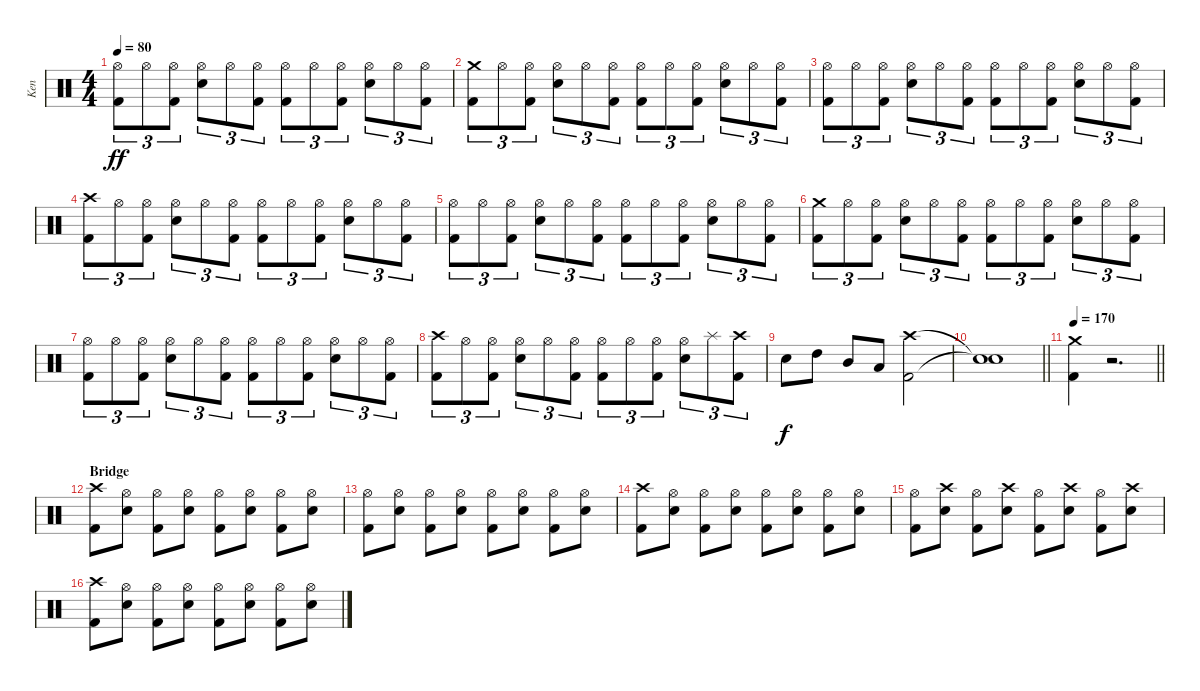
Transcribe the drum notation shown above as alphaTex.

\track ("Ken" "Ken") {instrument percussion}
\staff {score}
\articulation defaults
\ts (4 4)
\tempo 80
\clef neutral
\ks c
("Hi-Hat (open)" "Kick (hit) 2").8{tu (3 2) dy ff} "Hi-Hat (open)".8{tu (3 2)} ("Hi-Hat (open)" "Kick (hit) 2").8{tu (3 2)} ("Hi-Hat (open)" "Snare (hit) 2").8{tu (3 2)} "Hi-Hat (open)".8{tu (3 2)} ("Hi-Hat (open)" "Kick (hit) 2").8{tu (3 2)} ("Hi-Hat (open)" "Kick (hit) 2").8{tu (3 2)} "Hi-Hat (open)".8{tu (3 2)} ("Hi-Hat (open)" "Kick (hit) 2").8{tu (3 2)} ("Hi-Hat (open)" "Snare (hit) 2").8{tu (3 2)} "Hi-Hat (open)".8{tu (3 2)} ("Hi-Hat (open)" "Kick (hit) 2").8{tu (3 2)} |
("Crash medium (hit)" "Kick (hit) 2").8{tu (3 2)} "Hi-Hat (open)".8{tu (3 2)} ("Hi-Hat (open)" "Kick (hit) 2").8{tu (3 2)} ("Hi-Hat (open)" "Snare (hit) 2").8{tu (3 2)} "Hi-Hat (open)".8{tu (3 2)} ("Hi-Hat (open)" "Kick (hit) 2").8{tu (3 2)} ("Hi-Hat (open)" "Kick (hit) 2").8{tu (3 2)} "Hi-Hat (open)".8{tu (3 2)} ("Hi-Hat (open)" "Kick (hit) 2").8{tu (3 2)} ("Hi-Hat (open)" "Snare (hit) 2").8{tu (3 2)} "Hi-Hat (open)".8{tu (3 2)} ("Hi-Hat (open)" "Kick (hit) 2").8{tu (3 2)} |
("Hi-Hat (open)" "Kick (hit) 2").8{tu (3 2)} "Hi-Hat (open)".8{tu (3 2)} ("Hi-Hat (open)" "Kick (hit) 2").8{tu (3 2)} ("Hi-Hat (open)" "Snare (hit) 2").8{tu (3 2)} "Hi-Hat (open)".8{tu (3 2)} ("Hi-Hat (open)" "Kick (hit) 2").8{tu (3 2)} ("Hi-Hat (open)" "Kick (hit) 2").8{tu (3 2)} "Hi-Hat (open)".8{tu (3 2)} ("Hi-Hat (open)" "Kick (hit) 2").8{tu (3 2)} ("Hi-Hat (open)" "Snare (hit) 2").8{tu (3 2)} "Hi-Hat (open)".8{tu (3 2)} ("Hi-Hat (open)" "Kick (hit) 2").8{tu (3 2)} |
("Crash high (hit)" "Kick (hit) 2").8{tu (3 2)} "Hi-Hat (open)".8{tu (3 2)} ("Hi-Hat (open)" "Kick (hit) 2").8{tu (3 2)} ("Hi-Hat (open)" "Snare (hit) 2").8{tu (3 2)} "Hi-Hat (open)".8{tu (3 2)} ("Hi-Hat (open)" "Kick (hit) 2").8{tu (3 2)} ("Hi-Hat (open)" "Kick (hit) 2").8{tu (3 2)} "Hi-Hat (open)".8{tu (3 2)} ("Hi-Hat (open)" "Kick (hit) 2").8{tu (3 2)} ("Hi-Hat (open)" "Snare (hit) 2").8{tu (3 2)} "Hi-Hat (open)".8{tu (3 2)} ("Hi-Hat (open)" "Kick (hit) 2").8{tu (3 2)} |
("Hi-Hat (open)" "Kick (hit) 2").8{tu (3 2)} "Hi-Hat (open)".8{tu (3 2)} ("Hi-Hat (open)" "Kick (hit) 2").8{tu (3 2)} ("Hi-Hat (open)" "Snare (hit) 2").8{tu (3 2)} "Hi-Hat (open)".8{tu (3 2)} ("Hi-Hat (open)" "Kick (hit) 2").8{tu (3 2)} ("Hi-Hat (open)" "Kick (hit) 2").8{tu (3 2)} "Hi-Hat (open)".8{tu (3 2)} ("Hi-Hat (open)" "Kick (hit) 2").8{tu (3 2)} ("Hi-Hat (open)" "Snare (hit) 2").8{tu (3 2)} "Hi-Hat (open)".8{tu (3 2)} ("Hi-Hat (open)" "Kick (hit) 2").8{tu (3 2)} |
("Crash medium (hit)" "Kick (hit) 2").8{tu (3 2)} "Hi-Hat (open)".8{tu (3 2)} ("Hi-Hat (open)" "Kick (hit) 2").8{tu (3 2)} ("Hi-Hat (open)" "Snare (hit) 2").8{tu (3 2)} "Hi-Hat (open)".8{tu (3 2)} ("Hi-Hat (open)" "Kick (hit) 2").8{tu (3 2)} ("Hi-Hat (open)" "Kick (hit) 2").8{tu (3 2)} "Hi-Hat (open)".8{tu (3 2)} ("Hi-Hat (open)" "Kick (hit) 2").8{tu (3 2)} ("Hi-Hat (open)" "Snare (hit) 2").8{tu (3 2)} "Hi-Hat (open)".8{tu (3 2)} ("Hi-Hat (open)" "Kick (hit) 2").8{tu (3 2)} |
("Hi-Hat (open)" "Kick (hit) 2").8{tu (3 2)} "Hi-Hat (open)".8{tu (3 2)} ("Hi-Hat (open)" "Kick (hit) 2").8{tu (3 2)} ("Hi-Hat (open)" "Snare (hit) 2").8{tu (3 2)} "Hi-Hat (open)".8{tu (3 2)} ("Hi-Hat (open)" "Kick (hit) 2").8{tu (3 2)} ("Hi-Hat (open)" "Kick (hit) 2").8{tu (3 2)} "Hi-Hat (open)".8{tu (3 2)} ("Hi-Hat (open)" "Kick (hit) 2").8{tu (3 2)} ("Hi-Hat (open)" "Snare (hit) 2").8{tu (3 2)} "Hi-Hat (open)".8{tu (3 2)} ("Hi-Hat (open)" "Kick (hit) 2").8{tu (3 2)} |
("Crash high (hit)" "Kick (hit) 2").8{tu (3 2)} "Hi-Hat (open)".8{tu (3 2)} ("Hi-Hat (open)" "Kick (hit) 2").8{tu (3 2)} ("Hi-Hat (open)" "Snare (hit) 2").8{tu (3 2)} "Hi-Hat (open)".8{tu (3 2)} ("Hi-Hat (open)" "Kick (hit) 2").8{tu (3 2)} ("Hi-Hat (open)" "Kick (hit) 2").8{tu (3 2)} "Hi-Hat (open)".8{tu (3 2)} ("Hi-Hat (open)" "Kick (hit) 2").8{tu (3 2)} ("Hi-Hat (open)" "Snare (hit) 2").8{tu (3 2)} "Splash (hit)".8{tu (3 2)} ("Crash high (hit)" "Kick (hit) 2").8{tu (3 2)} |
"Snare (hit) 2".8{dy f} "High Tom (hit)".8 "Mid Tom (hit)".8 "Low Tom (hit)".8 ("Crash high (hit)" "Kick (hit) 2").2 |
\barLineRight lightlight
("Snare (hit)"{t} "Snare (hit)"{t}).1 |
\tempo 170
\barLineRight lightlight
("Kick (hit) 2" "Crash medium (hit)").4 r.2{d} |
\section ("" "Bridge")
("Crash high (hit)" "Kick (hit) 2").8 ("Hi-Hat (open)" "Snare (hit) 2").8 ("Hi-Hat (open)" "Kick (hit) 2").8 ("Hi-Hat (open)" "Snare (hit) 2").8 ("Hi-Hat (open)" "Kick (hit) 2").8 ("Hi-Hat (open)" "Snare (hit) 2").8 ("Hi-Hat (open)" "Kick (hit) 2").8 ("Hi-Hat (open)" "Snare (hit) 2").8 |
("Hi-Hat (open)" "Kick (hit) 2").8 ("Hi-Hat (open)" "Snare (hit) 2").8 ("Hi-Hat (open)" "Kick (hit) 2").8 ("Hi-Hat (open)" "Snare (hit) 2").8 ("Hi-Hat (open)" "Kick (hit) 2").8 ("Hi-Hat (open)" "Snare (hit) 2").8 ("Hi-Hat (open)" "Kick (hit) 2").8 ("Hi-Hat (open)" "Snare (hit) 2").8 |
("Crash high (hit)" "Kick (hit) 2").8 ("Hi-Hat (open)" "Snare (hit) 2").8 ("Hi-Hat (open)" "Kick (hit) 2").8 ("Hi-Hat (open)" "Snare (hit) 2").8 ("Hi-Hat (open)" "Kick (hit) 2").8 ("Hi-Hat (open)" "Snare (hit) 2").8 ("Hi-Hat (open)" "Kick (hit) 2").8 ("Hi-Hat (open)" "Snare (hit) 2").8 |
("Hi-Hat (open)" "Kick (hit) 2").8 ("Crash high (hit)" "Snare (hit) 2").8 ("Hi-Hat (open)" "Kick (hit) 2").8 ("Crash high (hit)" "Snare (hit) 2").8 ("Hi-Hat (open)" "Kick (hit) 2").8 ("Crash high (hit)" "Snare (hit) 2").8 ("Hi-Hat (open)" "Kick (hit) 2").8 ("Crash high (hit)" "Snare (hit) 2").8 |
("Crash high (hit)" "Kick (hit) 2").8 ("Hi-Hat (open)" "Snare (hit) 2").8 ("Hi-Hat (open)" "Kick (hit) 2").8 ("Hi-Hat (open)" "Snare (hit) 2").8 ("Hi-Hat (open)" "Kick (hit) 2").8 ("Hi-Hat (open)" "Snare (hit) 2").8 ("Hi-Hat (open)" "Kick (hit) 2").8 ("Hi-Hat (open)" "Snare (hit) 2").8
